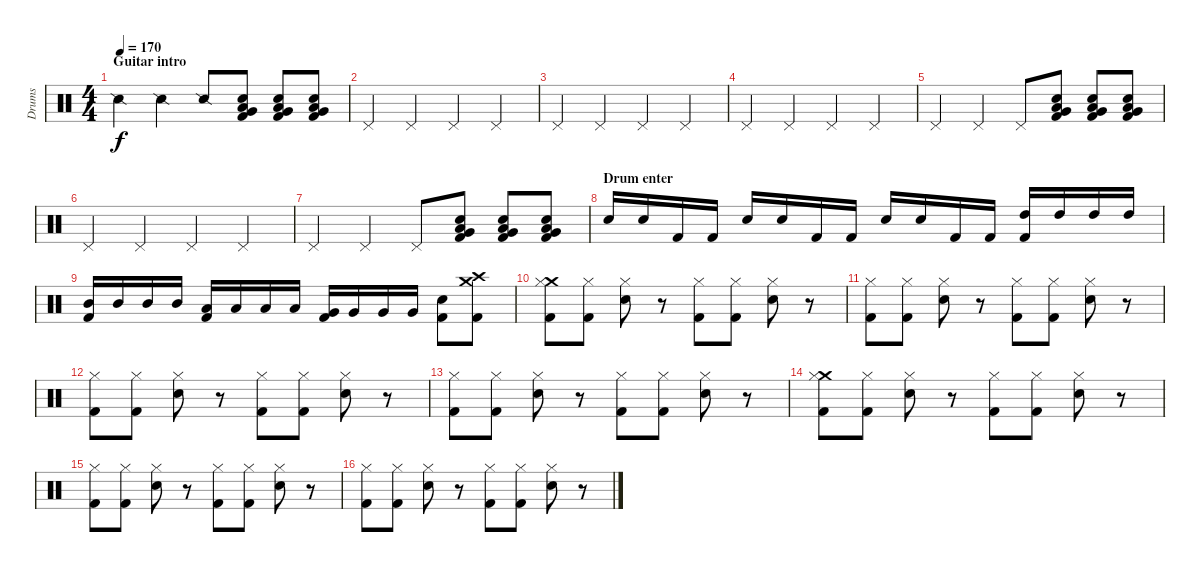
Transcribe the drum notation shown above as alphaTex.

\track ("Drums" "Drums") {instrument percussion}
\staff {score}
\articulation defaults
\ts (4 4)
\section ("" "Guitar intro")
\tempo 170
\clef neutral
\ks c "Snare (side stick) 2".4{dy f} "Snare (side stick) 2".4 "Snare (side stick) 2".8
("Very Low Tom (hit)" "Low Tom (hit)" "Snare (hit) 2" "Kick (hit) 2").8 ("Very Low Tom (hit)" "Low Tom (hit)" "Snare (hit) 2" "Kick (hit) 2").8 ("Very Low Tom (hit)" "Low Tom (hit)" "Snare (hit) 2" "Kick (hit) 2").8 |
"Pedal Hi-Hat (hit)".4 "Pedal Hi-Hat (hit)".4 "Pedal Hi-Hat (hit)".4 "Pedal Hi-Hat (hit)".4 |
"Pedal Hi-Hat (hit)".4 "Pedal Hi-Hat (hit)".4 "Pedal Hi-Hat (hit)".4 "Pedal Hi-Hat (hit)".4 |
"Pedal Hi-Hat (hit)".4 "Pedal Hi-Hat (hit)".4 "Pedal Hi-Hat (hit)".4 "Pedal Hi-Hat (hit)".4 |
"Pedal Hi-Hat (hit)".4 "Pedal Hi-Hat (hit)".4 "Pedal Hi-Hat (hit)".8 ("Very Low Tom (hit)" "Low Tom (hit)" "Snare (hit) 2" "Kick (hit) 2").8 ("Very Low Tom (hit)" "Low Tom (hit)" "Snare (hit) 2" "Kick (hit) 2").8 ("Very Low Tom (hit)" "Low Tom (hit)" "Snare (hit) 2" "Kick (hit) 2").8 |
"Pedal Hi-Hat (hit)".4 "Pedal Hi-Hat (hit)".4 "Pedal Hi-Hat (hit)".4 "Pedal Hi-Hat (hit)".4 |
"Pedal Hi-Hat (hit)".4 "Pedal Hi-Hat (hit)".4 "Pedal Hi-Hat (hit)".8 ("Very Low Tom (hit)" "Low Tom (hit)" "Snare (hit) 2" "Kick (hit) 2").8 ("Very Low Tom (hit)" "Low Tom (hit)" "Snare (hit) 2" "Kick (hit) 2").8 ("Very Low Tom (hit)" "Low Tom (hit)" "Snare (hit) 2" "Kick (hit) 2").8 |
\section ("" "Drum enter")
"Snare (hit) 2".16 "Snare (hit) 2".16 "Kick (hit) 2".16 "Kick (hit) 2".16 "Snare (hit) 2".16 "Snare (hit) 2".16 "Kick (hit) 2".16 "Kick (hit) 2".16 "Snare (hit) 2".16 "Snare (hit) 2".16 "Kick (hit) 2".16 "Kick (hit) 2".16 ("High Tom (hit)" "Kick (hit) 2").16 "High Tom (hit)".16 "High Tom (hit)".16 "High Tom (hit)".16 |
("Mid Tom (hit)" "Kick (hit) 2").16 "Mid Tom (hit)".16 "Mid Tom (hit)".16 "Mid Tom (hit)".16 ("Low Tom (hit)" "Kick (hit) 2").16 "Low Tom (hit)".16 "Low Tom (hit)".16 "Low Tom (hit)".16 ("Very Low Tom (hit)" "Kick (hit) 2").16 "Very Low Tom (hit)".16 "Very Low Tom (hit)".16 "Very Low Tom (hit)".16 ("Snare (hit) 2" "Kick (hit) 2").8 ("Crash medium (hit)" "Crash high (hit)" "Kick (hit) 2").8 |
("Crash medium (hit)" "Hi-Hat (closed)" "Kick (hit) 2").8 ("Hi-Hat (closed)" "Kick (hit) 2").8 ("Hi-Hat (closed)" "Snare (hit) 2").8 r.8 ("Hi-Hat (closed)" "Kick (hit) 2").8 ("Hi-Hat (closed)" "Kick (hit) 2").8 ("Hi-Hat (closed)" "Snare (hit) 2").8 r.8 |
("Hi-Hat (closed)" "Kick (hit) 2").8 ("Hi-Hat (closed)" "Kick (hit) 2").8 ("Hi-Hat (closed)" "Snare (hit) 2").8 r.8 ("Hi-Hat (closed)" "Kick (hit) 2").8 ("Hi-Hat (closed)" "Kick (hit) 2").8 ("Hi-Hat (closed)" "Snare (hit) 2").8 r.8 |
("Hi-Hat (closed)" "Kick (hit) 2").8 ("Hi-Hat (closed)" "Kick (hit) 2").8 ("Hi-Hat (closed)" "Snare (hit) 2").8 r.8 ("Hi-Hat (closed)" "Kick (hit) 2").8 ("Hi-Hat (closed)" "Kick (hit) 2").8 ("Hi-Hat (closed)" "Snare (hit) 2").8 r.8 |
("Hi-Hat (closed)" "Kick (hit) 2").8 ("Hi-Hat (closed)" "Kick (hit) 2").8 ("Hi-Hat (closed)" "Snare (hit) 2").8 r.8 ("Hi-Hat (closed)" "Kick (hit) 2").8 ("Hi-Hat (closed)" "Kick (hit) 2").8 ("Hi-Hat (closed)" "Snare (hit) 2").8 r.8 |
\section ("" "")
("Crash medium (hit)" "Hi-Hat (closed)" "Kick (hit) 2").8 ("Hi-Hat (closed)" "Kick (hit) 2").8 ("Hi-Hat (closed)" "Snare (hit) 2").8 r.8 ("Hi-Hat (closed)" "Kick (hit) 2").8 ("Hi-Hat (closed)" "Kick (hit) 2").8 ("Hi-Hat (closed)" "Snare (hit) 2").8 r.8 |
("Hi-Hat (closed)" "Kick (hit) 2").8 ("Hi-Hat (closed)" "Kick (hit) 2").8 ("Hi-Hat (closed)" "Snare (hit) 2").8 r.8 ("Hi-Hat (closed)" "Kick (hit) 2").8 ("Hi-Hat (closed)" "Kick (hit) 2").8 ("Hi-Hat (closed)" "Snare (hit) 2").8 r.8 |
("Hi-Hat (closed)" "Kick (hit) 2").8 ("Hi-Hat (closed)" "Kick (hit) 2").8 ("Hi-Hat (closed)" "Snare (hit) 2").8 r.8 ("Hi-Hat (closed)" "Kick (hit) 2").8 ("Hi-Hat (closed)" "Kick (hit) 2").8 ("Hi-Hat (closed)" "Snare (hit) 2").8 r.8
